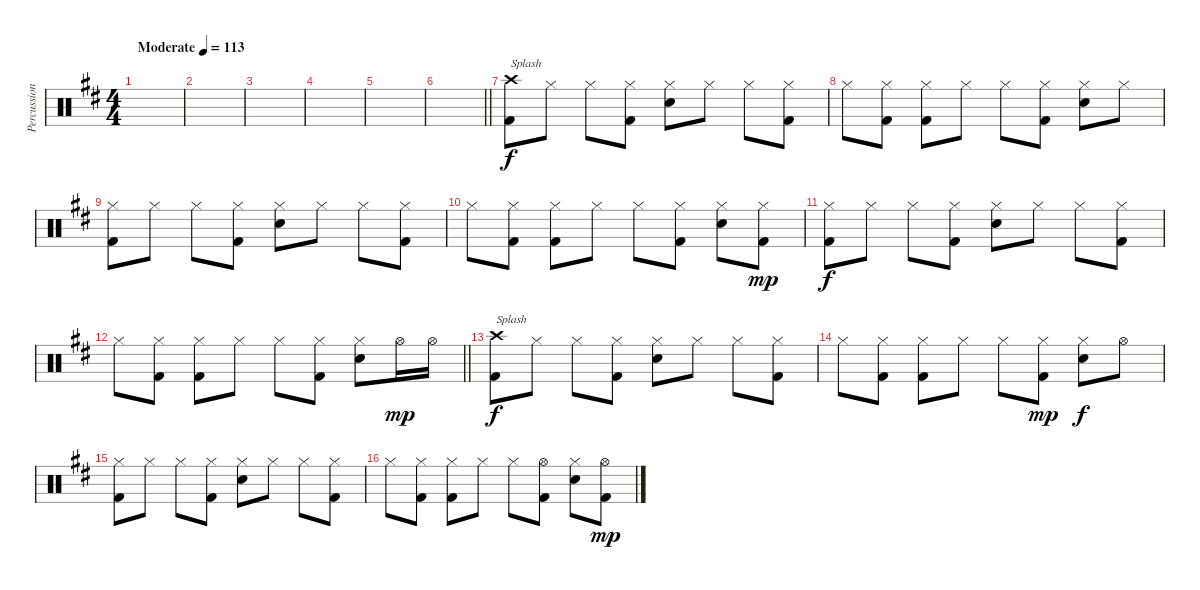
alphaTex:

\track ("Percussion" "Percussion") {instrument percussion}
\staff {score}
\articulation defaults
\ts (4 4)
\tempo (113 "Moderate")
\clef neutral
\ks bminor
|
|
|
|
|
\barLineRight lightlight
|
\section ("" "")
("Crash high (hit)" "Kick (hit) 2").8{txt "Splash"} "Hi-Hat (closed)".8 "Hi-Hat (closed)".8 ("Hi-Hat (closed)" "Kick (hit) 2").8 ("Hi-Hat (closed)" "Snare (hit) 2").8 "Hi-Hat (closed)".8 "Hi-Hat (closed)".8 ("Hi-Hat (closed)" "Kick (hit) 2").8 |
"Hi-Hat (closed)".8 ("Hi-Hat (closed)" "Kick (hit) 2").8 ("Hi-Hat (closed)" "Kick (hit) 2").8 "Hi-Hat (closed)".8 "Hi-Hat (closed)".8 ("Hi-Hat (closed)" "Kick (hit) 2").8 ("Hi-Hat (closed)" "Snare (hit) 2").8 "Hi-Hat (closed)".8 |
("Hi-Hat (closed)" "Kick (hit) 2").8 "Hi-Hat (closed)".8 "Hi-Hat (closed)".8 ("Hi-Hat (closed)" "Kick (hit) 2").8 ("Hi-Hat (closed)" "Snare (hit) 2").8 "Hi-Hat (closed)".8 "Hi-Hat (closed)".8 ("Hi-Hat (closed)" "Kick (hit) 2").8 |
"Hi-Hat (closed)".8 ("Hi-Hat (closed)" "Kick (hit) 2").8 ("Hi-Hat (closed)" "Kick (hit) 2").8 "Hi-Hat (closed)".8 "Hi-Hat (closed)".8 ("Hi-Hat (closed)" "Kick (hit) 2").8 ("Hi-Hat (closed)" "Snare (hit) 2").8 ("Hi-Hat (closed)" "Kick (hit) 2").8{dy mp} |
("Hi-Hat (closed)" "Kick (hit) 2").8{dy f} "Hi-Hat (closed)".8 "Hi-Hat (closed)".8 ("Hi-Hat (closed)" "Kick (hit) 2").8 ("Hi-Hat (closed)" "Snare (hit) 2").8 "Hi-Hat (closed)".8 "Hi-Hat (closed)".8 ("Hi-Hat (closed)" "Kick (hit) 2").8 |
\barLineRight lightlight "Hi-Hat (closed)".8
("Hi-Hat (closed)" "Kick (hit) 2").8 ("Hi-Hat (closed)" "Kick (hit) 2").8 "Hi-Hat (closed)".8 "Hi-Hat (closed)".8 ("Hi-Hat (closed)" "Kick (hit) 2").8 ("Hi-Hat (closed)" "Snare (hit) 2").8 "Hi-Hat (open)".16{dy mp} "Hi-Hat (open)".16 |
\section ("" "")
("Crash high (hit)" "Kick (hit) 2").8{txt "Splash" dy f} "Hi-Hat (closed)".8 "Hi-Hat (closed)".8 ("Hi-Hat (closed)" "Kick (hit) 2").8 ("Hi-Hat (closed)" "Snare (hit) 2").8 "Hi-Hat (closed)".8 "Hi-Hat (closed)".8 ("Hi-Hat (closed)" "Kick (hit) 2").8 |
"Hi-Hat (closed)".8 ("Hi-Hat (closed)" "Kick (hit) 2").8 ("Hi-Hat (closed)" "Kick (hit) 2").8 "Hi-Hat (closed)".8 "Hi-Hat (closed)".8 ("Hi-Hat (closed)" "Kick (hit) 2").8{dy mp} ("Hi-Hat (closed)" "Snare (hit) 2").8{dy f} "Hi-Hat (open)".8 |
("Hi-Hat (closed)" "Kick (hit) 2").8 "Hi-Hat (closed)".8 "Hi-Hat (closed)".8 ("Hi-Hat (closed)" "Kick (hit) 2").8 ("Hi-Hat (closed)" "Snare (hit) 2").8 "Hi-Hat (closed)".8 "Hi-Hat (closed)".8 ("Hi-Hat (closed)" "Kick (hit) 2").8 |
"Hi-Hat (closed)".8 ("Hi-Hat (closed)" "Kick (hit) 2").8 ("Hi-Hat (closed)" "Kick (hit) 2").8 "Hi-Hat (closed)".8 "Hi-Hat (closed)".8 ("Hi-Hat (open)" "Kick (hit) 2").8 ("Hi-Hat (closed)" "Snare (hit) 2").8 ("Hi-Hat (open)" "Kick (hit) 2").8{dy mp}
